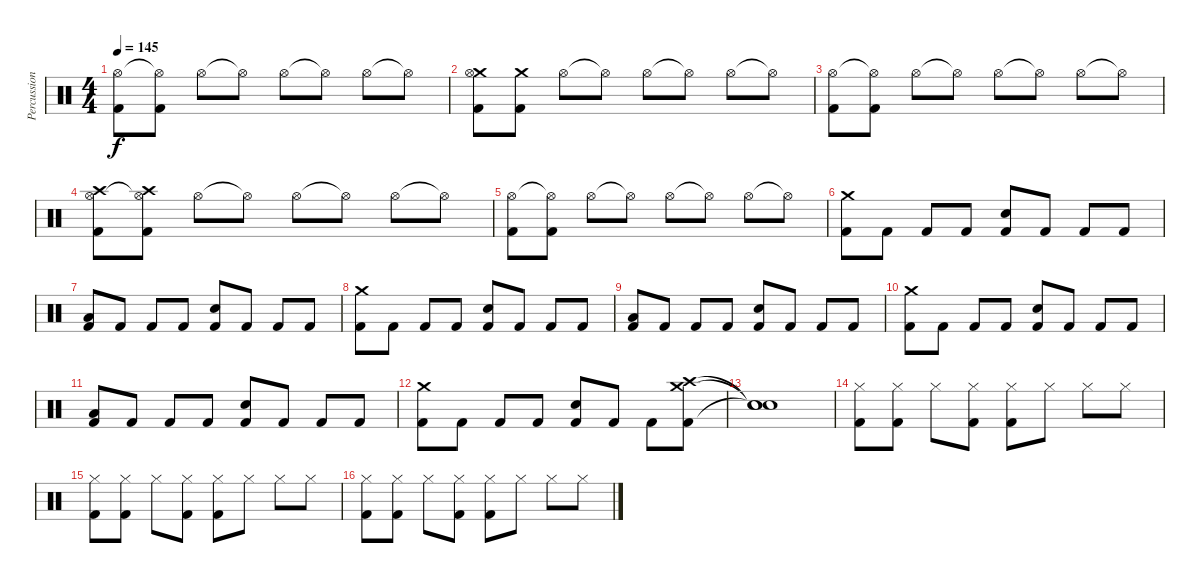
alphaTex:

\track ("Percussioni" "Percussion") {instrument percussion}
\staff {score}
\articulation defaults
\ts (4 4)
\tempo 145
\clef neutral
\ks c
("Hi-Hat (open)" "Kick (hit) 2").8{dy f} ("Hi-Hat (open)"{t} "Kick (hit) 2").8 "Hi-Hat (open)".8 "Hi-Hat (open)"{t}.8 "Hi-Hat (open)".8 "Hi-Hat (open)"{t}.8 "Hi-Hat (open)".8 "Hi-Hat (open)"{t}.8 |
("Crash medium (hit)" "Hi-Hat (open)" "Kick (hit) 2").8 ("Crash medium (hit)" "Kick (hit) 2").8 "Hi-Hat (open)".8 "Hi-Hat (open)"{t}.8 "Hi-Hat (open)".8 "Hi-Hat (open)"{t}.8 "Hi-Hat (open)".8 "Hi-Hat (open)"{t}.8 |
("Hi-Hat (open)" "Kick (hit) 2").8 ("Hi-Hat (open)"{t} "Kick (hit) 2").8 "Hi-Hat (open)".8 "Hi-Hat (open)"{t}.8 "Hi-Hat (open)".8 "Hi-Hat (open)"{t}.8 "Hi-Hat (open)".8 "Hi-Hat (open)"{t}.8 |
("Crash high (hit)" "Hi-Hat (open)" "Kick (hit) 2").8 ("Crash high (hit)" "Hi-Hat (open)"{t} "Kick (hit) 2").8 "Hi-Hat (open)".8 "Hi-Hat (open)"{t}.8 "Hi-Hat (open)".8 "Hi-Hat (open)"{t}.8 "Hi-Hat (open)".8 "Hi-Hat (open)"{t}.8 |
("Hi-Hat (open)" "Kick (hit) 2").8 ("Hi-Hat (open)"{t} "Kick (hit) 2").8 "Hi-Hat (open)".8 "Hi-Hat (open)"{t}.8 "Hi-Hat (open)".8 "Hi-Hat (open)"{t}.8 "Hi-Hat (open)".8 "Hi-Hat (open)"{t}.8 |
("Crash medium (hit)" "Kick (hit) 2").8 "Kick (hit) 2".8 "Kick (hit) 2".8 "Kick (hit) 2".8 ("Snare (hit) 2" "Kick (hit) 2").8 "Kick (hit) 2".8 "Kick (hit) 2".8 "Kick (hit) 2".8 |
("Low Floor Tom (hit)" "Kick (hit) 2").8 "Kick (hit) 2".8 "Kick (hit) 2".8 "Kick (hit) 2".8 ("Snare (hit) 2" "Kick (hit) 2").8 "Kick (hit) 2".8 "Kick (hit) 2".8 "Kick (hit) 2".8 |
("Crash medium (hit)" "Kick (hit) 2").8 "Kick (hit) 2".8 "Kick (hit) 2".8 "Kick (hit) 2".8 ("Snare (hit) 2" "Kick (hit) 2").8 "Kick (hit) 2".8 "Kick (hit) 2".8 "Kick (hit) 2".8 |
("Low Floor Tom (hit)" "Kick (hit) 2").8 "Kick (hit) 2".8 "Kick (hit) 2".8 "Kick (hit) 2".8 ("Snare (hit) 2" "Kick (hit) 2").8 "Kick (hit) 2".8 "Kick (hit) 2".8 "Kick (hit) 2".8 |
("Crash medium (hit)" "Kick (hit) 2").8 "Kick (hit) 2".8 "Kick (hit) 2".8 "Kick (hit) 2".8 ("Snare (hit) 2" "Kick (hit) 2").8 "Kick (hit) 2".8 "Kick (hit) 2".8 "Kick (hit) 2".8 |
("Low Floor Tom (hit)" "Kick (hit) 2").8 "Kick (hit) 2".8 "Kick (hit) 2".8 "Kick (hit) 2".8 ("Snare (hit) 2" "Kick (hit) 2").8 "Kick (hit) 2".8 "Kick (hit) 2".8 "Kick (hit) 2".8 |
("Crash medium (hit)" "Kick (hit) 2").8 "Kick (hit) 2".8 "Kick (hit) 2".8 "Kick (hit) 2".8 ("Snare (hit) 2" "Kick (hit) 2").8 "Kick (hit) 2".8 "Kick (hit) 2".8 ("Crash high (hit)" "Crash medium (hit)" "Kick (hit) 2").8 |
("Snare (hit)"{t} "Snare (hit)"{t} "Snare (hit)"{t}).1 |
("Hi-Hat (closed)" "Kick (hit) 2").8 ("Hi-Hat (closed)" "Kick (hit) 2").8 "Hi-Hat (closed)".8 ("Hi-Hat (closed)" "Kick (hit) 2").8 ("Hi-Hat (closed)" "Kick (hit) 2").8 "Hi-Hat (closed)".8 "Hi-Hat (closed)".8 "Hi-Hat (closed)".8 |
("Hi-Hat (closed)" "Kick (hit) 2").8 ("Hi-Hat (closed)" "Kick (hit) 2").8 "Hi-Hat (closed)".8 ("Hi-Hat (closed)" "Kick (hit) 2").8 ("Hi-Hat (closed)" "Kick (hit) 2").8 "Hi-Hat (closed)".8 "Hi-Hat (closed)".8 "Hi-Hat (closed)".8 |
("Hi-Hat (closed)" "Kick (hit) 2").8 ("Hi-Hat (closed)" "Kick (hit) 2").8 "Hi-Hat (closed)".8 ("Hi-Hat (closed)" "Kick (hit) 2").8 ("Hi-Hat (closed)" "Kick (hit) 2").8 "Hi-Hat (closed)".8 "Hi-Hat (closed)".8 "Hi-Hat (closed)".8
